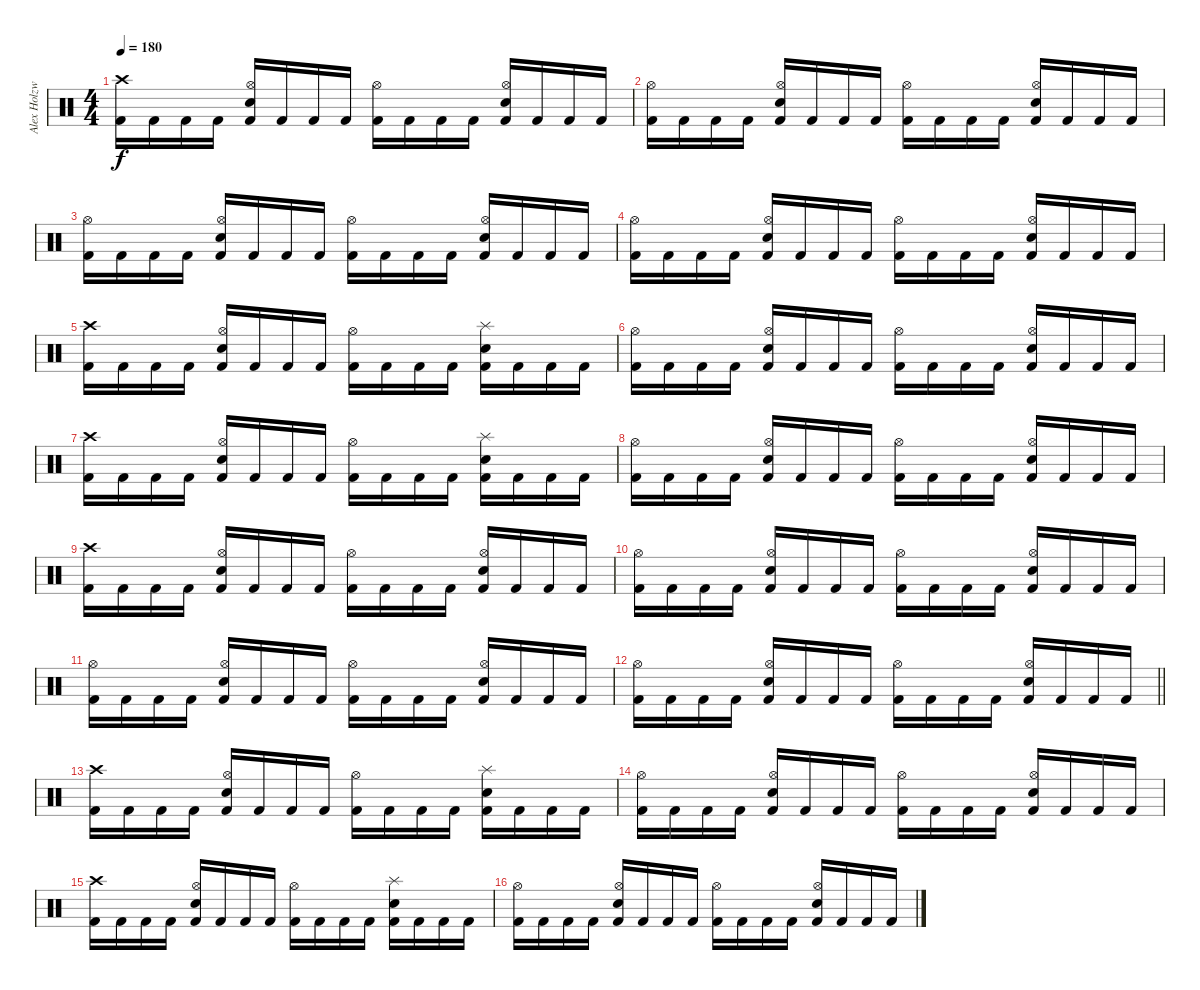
\track ("Alex Holzwarth" "Alex Holzw") {instrument percussion}
\staff {score}
\articulation defaults
\ts (4 4)
\tempo 180
\clef neutral
\ks c
("Crash high (hit)" "Kick (hit) 2").16{dy f} "Kick (hit) 2".16 "Kick (hit) 2".16 "Kick (hit) 2".16 ("Hi-Hat (open)" "Electric Snare (hit)" "Kick (hit) 2").16 "Kick (hit) 2".16 "Kick (hit) 2".16 "Kick (hit) 2".16 ("Hi-Hat (open)" "Kick (hit) 2").16 "Kick (hit) 2".16 "Kick (hit) 2".16 "Kick (hit) 2".16 ("Hi-Hat (open)" "Electric Snare (hit)" "Kick (hit) 2").16 "Kick (hit) 2".16 "Kick (hit) 2".16 "Kick (hit) 2".16 |
("Hi-Hat (open)" "Kick (hit) 2").16 "Kick (hit) 2".16 "Kick (hit) 2".16 "Kick (hit) 2".16 ("Hi-Hat (open)" "Electric Snare (hit)" "Kick (hit) 2").16 "Kick (hit) 2".16 "Kick (hit) 2".16 "Kick (hit) 2".16 ("Hi-Hat (open)" "Kick (hit) 2").16 "Kick (hit) 2".16 "Kick (hit) 2".16 "Kick (hit) 2".16 ("Hi-Hat (open)" "Electric Snare (hit)" "Kick (hit) 2").16 "Kick (hit) 2".16 "Kick (hit) 2".16 "Kick (hit) 2".16 |
("Hi-Hat (open)" "Kick (hit) 2").16 "Kick (hit) 2".16 "Kick (hit) 2".16 "Kick (hit) 2".16 ("Hi-Hat (open)" "Electric Snare (hit)" "Kick (hit) 2").16 "Kick (hit) 2".16 "Kick (hit) 2".16 "Kick (hit) 2".16 ("Hi-Hat (open)" "Kick (hit) 2").16 "Kick (hit) 2".16 "Kick (hit) 2".16 "Kick (hit) 2".16 ("Hi-Hat (open)" "Electric Snare (hit)" "Kick (hit) 2").16 "Kick (hit) 2".16 "Kick (hit) 2".16 "Kick (hit) 2".16 |
("Hi-Hat (open)" "Kick (hit) 2").16 "Kick (hit) 2".16 "Kick (hit) 2".16 "Kick (hit) 2".16 ("Hi-Hat (open)" "Electric Snare (hit)" "Kick (hit) 2").16 "Kick (hit) 2".16 "Kick (hit) 2".16 "Kick (hit) 2".16 ("Hi-Hat (open)" "Kick (hit) 2").16 "Kick (hit) 2".16 "Kick (hit) 2".16 "Kick (hit) 2".16 ("Hi-Hat (open)" "Electric Snare (hit)" "Kick (hit) 2").16 "Kick (hit) 2".16 "Kick (hit) 2".16 "Kick (hit) 2".16 |
("Crash high (hit)" "Kick (hit) 2").16 "Kick (hit) 2".16 "Kick (hit) 2".16 "Kick (hit) 2".16 ("Hi-Hat (open)" "Electric Snare (hit)" "Kick (hit) 2").16 "Kick (hit) 2".16 "Kick (hit) 2".16 "Kick (hit) 2".16 ("Hi-Hat (open)" "Kick (hit) 2").16 "Kick (hit) 2".16 "Kick (hit) 2".16 "Kick (hit) 2".16 ("Splash (hit)" "Electric Snare (hit)" "Kick (hit) 2").16 "Kick (hit) 2".16 "Kick (hit) 2".16 "Kick (hit) 2".16 |
("Hi-Hat (open)" "Kick (hit) 2").16 "Kick (hit) 2".16 "Kick (hit) 2".16 "Kick (hit) 2".16 ("Hi-Hat (open)" "Electric Snare (hit)" "Kick (hit) 2").16 "Kick (hit) 2".16 "Kick (hit) 2".16 "Kick (hit) 2".16 ("Hi-Hat (open)" "Kick (hit) 2").16 "Kick (hit) 2".16 "Kick (hit) 2".16 "Kick (hit) 2".16 ("Hi-Hat (open)" "Electric Snare (hit)" "Kick (hit) 2").16 "Kick (hit) 2".16 "Kick (hit) 2".16 "Kick (hit) 2".16 |
("Crash high (hit)" "Kick (hit) 2").16 "Kick (hit) 2".16 "Kick (hit) 2".16 "Kick (hit) 2".16 ("Hi-Hat (open)" "Electric Snare (hit)" "Kick (hit) 2").16 "Kick (hit) 2".16 "Kick (hit) 2".16 "Kick (hit) 2".16 ("Hi-Hat (open)" "Kick (hit) 2").16 "Kick (hit) 2".16 "Kick (hit) 2".16 "Kick (hit) 2".16 ("Splash (hit)" "Electric Snare (hit)" "Kick (hit) 2").16 "Kick (hit) 2".16 "Kick (hit) 2".16 "Kick (hit) 2".16 |
("Hi-Hat (open)" "Kick (hit) 2").16 "Kick (hit) 2".16 "Kick (hit) 2".16 "Kick (hit) 2".16 ("Hi-Hat (open)" "Electric Snare (hit)" "Kick (hit) 2").16 "Kick (hit) 2".16 "Kick (hit) 2".16 "Kick (hit) 2".16 ("Hi-Hat (open)" "Kick (hit) 2").16 "Kick (hit) 2".16 "Kick (hit) 2".16 "Kick (hit) 2".16 ("Hi-Hat (open)" "Electric Snare (hit)" "Kick (hit) 2").16 "Kick (hit) 2".16 "Kick (hit) 2".16 "Kick (hit) 2".16 |
("Crash high (hit)" "Kick (hit) 2").16 "Kick (hit) 2".16 "Kick (hit) 2".16 "Kick (hit) 2".16 ("Hi-Hat (open)" "Electric Snare (hit)" "Kick (hit) 2").16 "Kick (hit) 2".16 "Kick (hit) 2".16 "Kick (hit) 2".16 ("Hi-Hat (open)" "Kick (hit) 2").16 "Kick (hit) 2".16 "Kick (hit) 2".16 "Kick (hit) 2".16 ("Hi-Hat (open)" "Electric Snare (hit)" "Kick (hit) 2").16 "Kick (hit) 2".16 "Kick (hit) 2".16 "Kick (hit) 2".16 |
("Hi-Hat (open)" "Kick (hit) 2").16 "Kick (hit) 2".16 "Kick (hit) 2".16 "Kick (hit) 2".16 ("Hi-Hat (open)" "Electric Snare (hit)" "Kick (hit) 2").16 "Kick (hit) 2".16 "Kick (hit) 2".16 "Kick (hit) 2".16 ("Hi-Hat (open)" "Kick (hit) 2").16 "Kick (hit) 2".16 "Kick (hit) 2".16 "Kick (hit) 2".16 ("Hi-Hat (open)" "Electric Snare (hit)" "Kick (hit) 2").16 "Kick (hit) 2".16 "Kick (hit) 2".16 "Kick (hit) 2".16 |
("Hi-Hat (open)" "Kick (hit) 2").16 "Kick (hit) 2".16 "Kick (hit) 2".16 "Kick (hit) 2".16 ("Hi-Hat (open)" "Electric Snare (hit)" "Kick (hit) 2").16 "Kick (hit) 2".16 "Kick (hit) 2".16 "Kick (hit) 2".16 ("Hi-Hat (open)" "Kick (hit) 2").16 "Kick (hit) 2".16 "Kick (hit) 2".16 "Kick (hit) 2".16 ("Hi-Hat (open)" "Electric Snare (hit)" "Kick (hit) 2").16 "Kick (hit) 2".16 "Kick (hit) 2".16 "Kick (hit) 2".16 |
\barLineRight lightlight
("Hi-Hat (open)" "Kick (hit) 2").16 "Kick (hit) 2".16 "Kick (hit) 2".16 "Kick (hit) 2".16 ("Hi-Hat (open)" "Electric Snare (hit)" "Kick (hit) 2").16 "Kick (hit) 2".16 "Kick (hit) 2".16 "Kick (hit) 2".16 ("Hi-Hat (open)" "Kick (hit) 2").16 "Kick (hit) 2".16 "Kick (hit) 2".16 "Kick (hit) 2".16 ("Hi-Hat (open)" "Electric Snare (hit)" "Kick (hit) 2").16 "Kick (hit) 2".16 "Kick (hit) 2".16 "Kick (hit) 2".16 |
("Crash high (hit)" "Kick (hit) 2").16 "Kick (hit) 2".16 "Kick (hit) 2".16 "Kick (hit) 2".16 ("Hi-Hat (open)" "Electric Snare (hit)" "Kick (hit) 2").16 "Kick (hit) 2".16 "Kick (hit) 2".16 "Kick (hit) 2".16 ("Hi-Hat (open)" "Kick (hit) 2").16 "Kick (hit) 2".16 "Kick (hit) 2".16 "Kick (hit) 2".16 ("Splash (hit)" "Electric Snare (hit)" "Kick (hit) 2").16 "Kick (hit) 2".16 "Kick (hit) 2".16 "Kick (hit) 2".16 |
("Hi-Hat (open)" "Kick (hit) 2").16 "Kick (hit) 2".16 "Kick (hit) 2".16 "Kick (hit) 2".16 ("Hi-Hat (open)" "Electric Snare (hit)" "Kick (hit) 2").16 "Kick (hit) 2".16 "Kick (hit) 2".16 "Kick (hit) 2".16 ("Hi-Hat (open)" "Kick (hit) 2").16 "Kick (hit) 2".16 "Kick (hit) 2".16 "Kick (hit) 2".16 ("Hi-Hat (open)" "Electric Snare (hit)" "Kick (hit) 2").16 "Kick (hit) 2".16 "Kick (hit) 2".16 "Kick (hit) 2".16 |
("Crash high (hit)" "Kick (hit) 2").16 "Kick (hit) 2".16 "Kick (hit) 2".16 "Kick (hit) 2".16 ("Hi-Hat (open)" "Electric Snare (hit)" "Kick (hit) 2").16 "Kick (hit) 2".16 "Kick (hit) 2".16 "Kick (hit) 2".16 ("Hi-Hat (open)" "Kick (hit) 2").16 "Kick (hit) 2".16 "Kick (hit) 2".16 "Kick (hit) 2".16 ("Splash (hit)" "Electric Snare (hit)" "Kick (hit) 2").16 "Kick (hit) 2".16 "Kick (hit) 2".16 "Kick (hit) 2".16 |
("Hi-Hat (open)" "Kick (hit) 2").16 "Kick (hit) 2".16 "Kick (hit) 2".16 "Kick (hit) 2".16 ("Hi-Hat (open)" "Electric Snare (hit)" "Kick (hit) 2").16 "Kick (hit) 2".16 "Kick (hit) 2".16 "Kick (hit) 2".16 ("Hi-Hat (open)" "Kick (hit) 2").16 "Kick (hit) 2".16 "Kick (hit) 2".16 "Kick (hit) 2".16 ("Hi-Hat (open)" "Electric Snare (hit)" "Kick (hit) 2").16 "Kick (hit) 2".16 "Kick (hit) 2".16 "Kick (hit) 2".16
